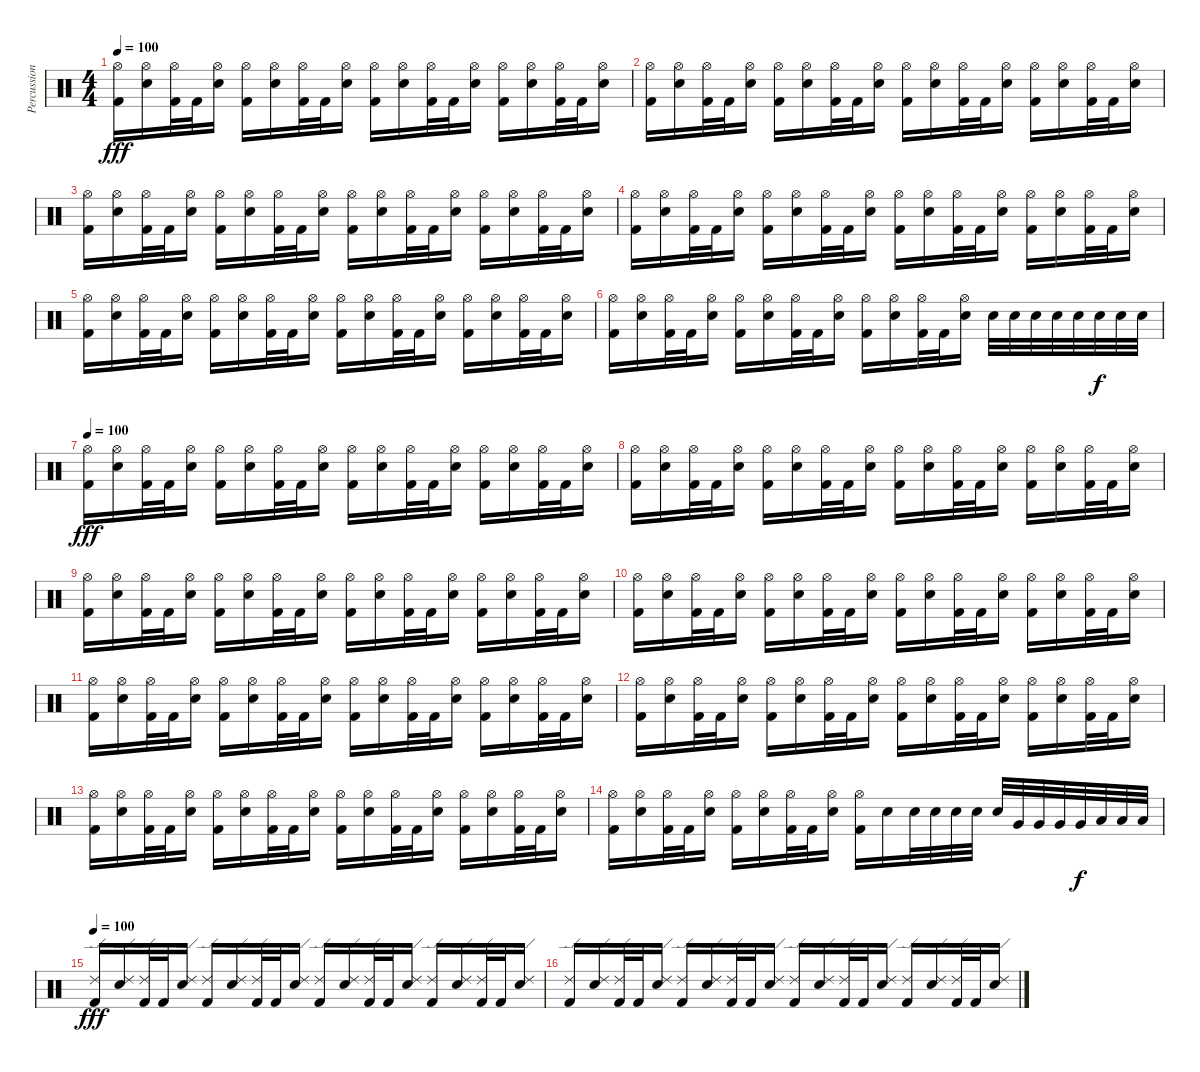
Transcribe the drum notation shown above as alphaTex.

\track ("Percussion" "Percussion") {instrument percussion}
\staff {score}
\articulation defaults
\ts (4 4)
\tempo 100
\clef neutral
\ks c
("Kick (hit) 2" "Hi-Hat (open)").16{dy fff} ("Electric Snare (hit)" "Hi-Hat (open)").16 ("Kick (hit) 2" "Hi-Hat (open)").32 "Kick (hit) 2".32 ("Electric Snare (hit)" "Hi-Hat (open)").16 ("Kick (hit) 2" "Hi-Hat (open)").16 ("Electric Snare (hit)" "Hi-Hat (open)").16 ("Kick (hit) 2" "Hi-Hat (open)").32 "Kick (hit) 2".32 ("Electric Snare (hit)" "Hi-Hat (open)").16 ("Kick (hit) 2" "Hi-Hat (open)").16 ("Electric Snare (hit)" "Hi-Hat (open)").16 ("Kick (hit) 2" "Hi-Hat (open)").32 "Kick (hit) 2".32 ("Electric Snare (hit)" "Hi-Hat (open)").16 ("Kick (hit) 2" "Hi-Hat (open)").16 ("Electric Snare (hit)" "Hi-Hat (open)").16 ("Kick (hit) 2" "Hi-Hat (open)").32 "Kick (hit) 2".32 ("Electric Snare (hit)" "Hi-Hat (open)").16 |
("Kick (hit) 2" "Hi-Hat (open)").16 ("Electric Snare (hit)" "Hi-Hat (open)").16 ("Kick (hit) 2" "Hi-Hat (open)").32 "Kick (hit) 2".32 ("Electric Snare (hit)" "Hi-Hat (open)").16 ("Kick (hit) 2" "Hi-Hat (open)").16 ("Electric Snare (hit)" "Hi-Hat (open)").16 ("Kick (hit) 2" "Hi-Hat (open)").32 "Kick (hit) 2".32 ("Electric Snare (hit)" "Hi-Hat (open)").16 ("Kick (hit) 2" "Hi-Hat (open)").16 ("Electric Snare (hit)" "Hi-Hat (open)").16 ("Kick (hit) 2" "Hi-Hat (open)").32 "Kick (hit) 2".32 ("Electric Snare (hit)" "Hi-Hat (open)").16 ("Kick (hit) 2" "Hi-Hat (open)").16 ("Electric Snare (hit)" "Hi-Hat (open)").16 ("Kick (hit) 2" "Hi-Hat (open)").32 "Kick (hit) 2".32 ("Electric Snare (hit)" "Hi-Hat (open)").16 |
("Kick (hit) 2" "Hi-Hat (open)").16 ("Electric Snare (hit)" "Hi-Hat (open)").16 ("Kick (hit) 2" "Hi-Hat (open)").32 "Kick (hit) 2".32 ("Electric Snare (hit)" "Hi-Hat (open)").16 ("Kick (hit) 2" "Hi-Hat (open)").16 ("Electric Snare (hit)" "Hi-Hat (open)").16 ("Kick (hit) 2" "Hi-Hat (open)").32 "Kick (hit) 2".32 ("Electric Snare (hit)" "Hi-Hat (open)").16 ("Kick (hit) 2" "Hi-Hat (open)").16 ("Electric Snare (hit)" "Hi-Hat (open)").16 ("Kick (hit) 2" "Hi-Hat (open)").32 "Kick (hit) 2".32 ("Electric Snare (hit)" "Hi-Hat (open)").16 ("Kick (hit) 2" "Hi-Hat (open)").16 ("Electric Snare (hit)" "Hi-Hat (open)").16 ("Kick (hit) 2" "Hi-Hat (open)").32 "Kick (hit) 2".32 ("Electric Snare (hit)" "Hi-Hat (open)").16 |
("Kick (hit) 2" "Hi-Hat (open)").16 ("Electric Snare (hit)" "Hi-Hat (open)").16 ("Kick (hit) 2" "Hi-Hat (open)").32 "Kick (hit) 2".32 ("Electric Snare (hit)" "Hi-Hat (open)").16 ("Kick (hit) 2" "Hi-Hat (open)").16 ("Electric Snare (hit)" "Hi-Hat (open)").16 ("Kick (hit) 2" "Hi-Hat (open)").32 "Kick (hit) 2".32 ("Electric Snare (hit)" "Hi-Hat (open)").16 ("Kick (hit) 2" "Hi-Hat (open)").16 ("Electric Snare (hit)" "Hi-Hat (open)").16 ("Kick (hit) 2" "Hi-Hat (open)").32 "Kick (hit) 2".32 ("Electric Snare (hit)" "Hi-Hat (open)").16 ("Kick (hit) 2" "Hi-Hat (open)").16 ("Electric Snare (hit)" "Hi-Hat (open)").16 ("Kick (hit) 2" "Hi-Hat (open)").32 "Kick (hit) 2".32 ("Electric Snare (hit)" "Hi-Hat (open)").16 |
("Kick (hit) 2" "Hi-Hat (open)").16 ("Electric Snare (hit)" "Hi-Hat (open)").16 ("Kick (hit) 2" "Hi-Hat (open)").32 "Kick (hit) 2".32 ("Electric Snare (hit)" "Hi-Hat (open)").16 ("Kick (hit) 2" "Hi-Hat (open)").16 ("Electric Snare (hit)" "Hi-Hat (open)").16 ("Kick (hit) 2" "Hi-Hat (open)").32 "Kick (hit) 2".32 ("Electric Snare (hit)" "Hi-Hat (open)").16 ("Kick (hit) 2" "Hi-Hat (open)").16 ("Electric Snare (hit)" "Hi-Hat (open)").16 ("Kick (hit) 2" "Hi-Hat (open)").32 "Kick (hit) 2".32 ("Electric Snare (hit)" "Hi-Hat (open)").16 ("Kick (hit) 2" "Hi-Hat (open)").16 ("Electric Snare (hit)" "Hi-Hat (open)").16 ("Kick (hit) 2" "Hi-Hat (open)").32 "Kick (hit) 2".32 ("Electric Snare (hit)" "Hi-Hat (open)").16 |
("Kick (hit) 2" "Hi-Hat (open)").16 ("Electric Snare (hit)" "Hi-Hat (open)").16 ("Kick (hit) 2" "Hi-Hat (open)").32 "Kick (hit) 2".32 ("Electric Snare (hit)" "Hi-Hat (open)").16 ("Kick (hit) 2" "Hi-Hat (open)").16 ("Electric Snare (hit)" "Hi-Hat (open)").16 ("Kick (hit) 2" "Hi-Hat (open)").32 "Kick (hit) 2".32 ("Electric Snare (hit)" "Hi-Hat (open)").16 ("Kick (hit) 2" "Hi-Hat (open)").16 ("Electric Snare (hit)" "Hi-Hat (open)").16 ("Kick (hit) 2" "Hi-Hat (open)").32 "Kick (hit) 2".32 ("Electric Snare (hit)" "Hi-Hat (open)").16 "Electric Snare (hit)".32 "Electric Snare (hit)".32 "Electric Snare (hit)".32 "Electric Snare (hit)".32 "Electric Snare (hit)".32 "Electric Snare (hit)".32{dy f} "Electric Snare (hit)".32 "Electric Snare (hit)".32 |
\tempo 100
("Kick (hit) 2" "Hi-Hat (open)").16{dy fff} ("Electric Snare (hit)" "Hi-Hat (open)").16 ("Kick (hit) 2" "Hi-Hat (open)").32 "Kick (hit) 2".32 ("Electric Snare (hit)" "Hi-Hat (open)").16 ("Kick (hit) 2" "Hi-Hat (open)").16 ("Electric Snare (hit)" "Hi-Hat (open)").16 ("Kick (hit) 2" "Hi-Hat (open)").32 "Kick (hit) 2".32 ("Electric Snare (hit)" "Hi-Hat (open)").16 ("Kick (hit) 2" "Hi-Hat (open)").16 ("Electric Snare (hit)" "Hi-Hat (open)").16 ("Kick (hit) 2" "Hi-Hat (open)").32 "Kick (hit) 2".32 ("Electric Snare (hit)" "Hi-Hat (open)").16 ("Kick (hit) 2" "Hi-Hat (open)").16 ("Electric Snare (hit)" "Hi-Hat (open)").16 ("Kick (hit) 2" "Hi-Hat (open)").32 "Kick (hit) 2".32 ("Electric Snare (hit)" "Hi-Hat (open)").16 |
("Kick (hit) 2" "Hi-Hat (open)").16 ("Electric Snare (hit)" "Hi-Hat (open)").16 ("Kick (hit) 2" "Hi-Hat (open)").32 "Kick (hit) 2".32 ("Electric Snare (hit)" "Hi-Hat (open)").16 ("Kick (hit) 2" "Hi-Hat (open)").16 ("Electric Snare (hit)" "Hi-Hat (open)").16 ("Kick (hit) 2" "Hi-Hat (open)").32 "Kick (hit) 2".32 ("Electric Snare (hit)" "Hi-Hat (open)").16 ("Kick (hit) 2" "Hi-Hat (open)").16 ("Electric Snare (hit)" "Hi-Hat (open)").16 ("Kick (hit) 2" "Hi-Hat (open)").32 "Kick (hit) 2".32 ("Electric Snare (hit)" "Hi-Hat (open)").16 ("Kick (hit) 2" "Hi-Hat (open)").16 ("Electric Snare (hit)" "Hi-Hat (open)").16 ("Kick (hit) 2" "Hi-Hat (open)").32 "Kick (hit) 2".32 ("Electric Snare (hit)" "Hi-Hat (open)").16 |
("Kick (hit) 2" "Hi-Hat (open)").16 ("Electric Snare (hit)" "Hi-Hat (open)").16 ("Kick (hit) 2" "Hi-Hat (open)").32 "Kick (hit) 2".32 ("Electric Snare (hit)" "Hi-Hat (open)").16 ("Kick (hit) 2" "Hi-Hat (open)").16 ("Electric Snare (hit)" "Hi-Hat (open)").16 ("Kick (hit) 2" "Hi-Hat (open)").32 "Kick (hit) 2".32 ("Electric Snare (hit)" "Hi-Hat (open)").16 ("Kick (hit) 2" "Hi-Hat (open)").16 ("Electric Snare (hit)" "Hi-Hat (open)").16 ("Kick (hit) 2" "Hi-Hat (open)").32 "Kick (hit) 2".32 ("Electric Snare (hit)" "Hi-Hat (open)").16 ("Kick (hit) 2" "Hi-Hat (open)").16 ("Electric Snare (hit)" "Hi-Hat (open)").16 ("Kick (hit) 2" "Hi-Hat (open)").32 "Kick (hit) 2".32 ("Electric Snare (hit)" "Hi-Hat (open)").16 |
("Kick (hit) 2" "Hi-Hat (open)").16 ("Electric Snare (hit)" "Hi-Hat (open)").16 ("Kick (hit) 2" "Hi-Hat (open)").32 "Kick (hit) 2".32 ("Electric Snare (hit)" "Hi-Hat (open)").16 ("Kick (hit) 2" "Hi-Hat (open)").16 ("Electric Snare (hit)" "Hi-Hat (open)").16 ("Kick (hit) 2" "Hi-Hat (open)").32 "Kick (hit) 2".32 ("Electric Snare (hit)" "Hi-Hat (open)").16 ("Kick (hit) 2" "Hi-Hat (open)").16 ("Electric Snare (hit)" "Hi-Hat (open)").16 ("Kick (hit) 2" "Hi-Hat (open)").32 "Kick (hit) 2".32 ("Electric Snare (hit)" "Hi-Hat (open)").16 ("Kick (hit) 2" "Hi-Hat (open)").16 ("Electric Snare (hit)" "Hi-Hat (open)").16 ("Kick (hit) 2" "Hi-Hat (open)").32 "Kick (hit) 2".32 ("Electric Snare (hit)" "Hi-Hat (open)").16 |
("Kick (hit) 2" "Hi-Hat (open)").16 ("Electric Snare (hit)" "Hi-Hat (open)").16 ("Kick (hit) 2" "Hi-Hat (open)").32 "Kick (hit) 2".32 ("Electric Snare (hit)" "Hi-Hat (open)").16 ("Kick (hit) 2" "Hi-Hat (open)").16 ("Electric Snare (hit)" "Hi-Hat (open)").16 ("Kick (hit) 2" "Hi-Hat (open)").32 "Kick (hit) 2".32 ("Electric Snare (hit)" "Hi-Hat (open)").16 ("Kick (hit) 2" "Hi-Hat (open)").16 ("Electric Snare (hit)" "Hi-Hat (open)").16 ("Kick (hit) 2" "Hi-Hat (open)").32 "Kick (hit) 2".32 ("Electric Snare (hit)" "Hi-Hat (open)").16 ("Kick (hit) 2" "Hi-Hat (open)").16 ("Electric Snare (hit)" "Hi-Hat (open)").16 ("Kick (hit) 2" "Hi-Hat (open)").32 "Kick (hit) 2".32 ("Electric Snare (hit)" "Hi-Hat (open)").16 |
("Kick (hit) 2" "Hi-Hat (open)").16 ("Electric Snare (hit)" "Hi-Hat (open)").16 ("Kick (hit) 2" "Hi-Hat (open)").32 "Kick (hit) 2".32 ("Electric Snare (hit)" "Hi-Hat (open)").16 ("Kick (hit) 2" "Hi-Hat (open)").16 ("Electric Snare (hit)" "Hi-Hat (open)").16 ("Kick (hit) 2" "Hi-Hat (open)").32 "Kick (hit) 2".32 ("Electric Snare (hit)" "Hi-Hat (open)").16 ("Kick (hit) 2" "Hi-Hat (open)").16 ("Electric Snare (hit)" "Hi-Hat (open)").16 ("Kick (hit) 2" "Hi-Hat (open)").32 "Kick (hit) 2".32 ("Electric Snare (hit)" "Hi-Hat (open)").16 ("Kick (hit) 2" "Hi-Hat (open)").16 ("Electric Snare (hit)" "Hi-Hat (open)").16 ("Kick (hit) 2" "Hi-Hat (open)").32 "Kick (hit) 2".32 ("Electric Snare (hit)" "Hi-Hat (open)").16 |
("Kick (hit) 2" "Hi-Hat (open)").16 ("Electric Snare (hit)" "Hi-Hat (open)").16 ("Kick (hit) 2" "Hi-Hat (open)").32 "Kick (hit) 2".32 ("Electric Snare (hit)" "Hi-Hat (open)").16 ("Kick (hit) 2" "Hi-Hat (open)").16 ("Electric Snare (hit)" "Hi-Hat (open)").16 ("Kick (hit) 2" "Hi-Hat (open)").32 "Kick (hit) 2".32 ("Electric Snare (hit)" "Hi-Hat (open)").16 ("Kick (hit) 2" "Hi-Hat (open)").16 ("Electric Snare (hit)" "Hi-Hat (open)").16 ("Kick (hit) 2" "Hi-Hat (open)").32 "Kick (hit) 2".32 ("Electric Snare (hit)" "Hi-Hat (open)").16 ("Kick (hit) 2" "Hi-Hat (open)").16 ("Electric Snare (hit)" "Hi-Hat (open)").16 ("Kick (hit) 2" "Hi-Hat (open)").32 "Kick (hit) 2".32 ("Electric Snare (hit)" "Hi-Hat (open)").16 |
("Kick (hit) 2" "Hi-Hat (open)").16 ("Electric Snare (hit)" "Hi-Hat (open)").16 ("Kick (hit) 2" "Hi-Hat (open)").32 "Kick (hit) 2".32 ("Electric Snare (hit)" "Hi-Hat (open)").16 ("Kick (hit) 2" "Hi-Hat (open)").16 ("Electric Snare (hit)" "Hi-Hat (open)").16 ("Kick (hit) 2" "Hi-Hat (open)").32 "Kick (hit) 2".32 ("Electric Snare (hit)" "Hi-Hat (open)").16 ("Kick (hit) 2" "Hi-Hat (open)").16 "Electric Snare (hit)".16 "Electric Snare (hit)".32 "Electric Snare (hit)".32 "Electric Snare (hit)".32 "Electric Snare (hit)".32 "Electric Snare (hit)".32 "Very Low Tom (hit)".32 "Very Low Tom (hit)".32 "Very Low Tom (hit)".32 "Very Low Tom (hit)".32{dy f} "Low Floor Tom (hit)".32 "Low Floor Tom (hit)".32 "Low Floor Tom (hit)".32 |
\tempo 100
("Kick (hit) 2" "Ride (edge) 2").16{dy fff} ("Electric Snare (hit)" "Ride (edge) 2").16 ("Kick (hit) 2" "Ride (edge) 2").32 "Kick (hit) 2".32 ("Electric Snare (hit)" "Ride (edge) 2").16 ("Kick (hit) 2" "Ride (edge) 2").16 ("Electric Snare (hit)" "Ride (edge) 2").16 ("Kick (hit) 2" "Ride (edge) 2").32 "Kick (hit) 2".32 ("Electric Snare (hit)" "Ride (edge) 2").16 ("Kick (hit) 2" "Ride (edge) 2").16 ("Electric Snare (hit)" "Ride (edge) 2").16 ("Kick (hit) 2" "Ride (edge) 2").32 "Kick (hit) 2".32 ("Electric Snare (hit)" "Ride (edge) 2").16 ("Kick (hit) 2" "Ride (edge) 2").16 ("Electric Snare (hit)" "Ride (edge) 2").16 ("Kick (hit) 2" "Ride (edge) 2").32 "Kick (hit) 2".32 ("Electric Snare (hit)" "Ride (edge) 2").16 |
("Kick (hit) 2" "Ride (edge) 2").16 ("Electric Snare (hit)" "Ride (edge) 2").16 ("Kick (hit) 2" "Ride (edge) 2").32 "Kick (hit) 2".32 ("Electric Snare (hit)" "Ride (edge) 2").16 ("Kick (hit) 2" "Ride (edge) 2").16 ("Electric Snare (hit)" "Ride (edge) 2").16 ("Kick (hit) 2" "Ride (edge) 2").32 "Kick (hit) 2".32 ("Electric Snare (hit)" "Ride (edge) 2").16 ("Kick (hit) 2" "Ride (edge) 2").16 ("Electric Snare (hit)" "Ride (edge) 2").16 ("Kick (hit) 2" "Ride (edge) 2").32 "Kick (hit) 2".32 ("Electric Snare (hit)" "Ride (edge) 2").16 ("Kick (hit) 2" "Ride (edge) 2").16 ("Electric Snare (hit)" "Ride (edge) 2").16 ("Kick (hit) 2" "Ride (edge) 2").32 "Kick (hit) 2".32 ("Electric Snare (hit)" "Ride (edge) 2").16
